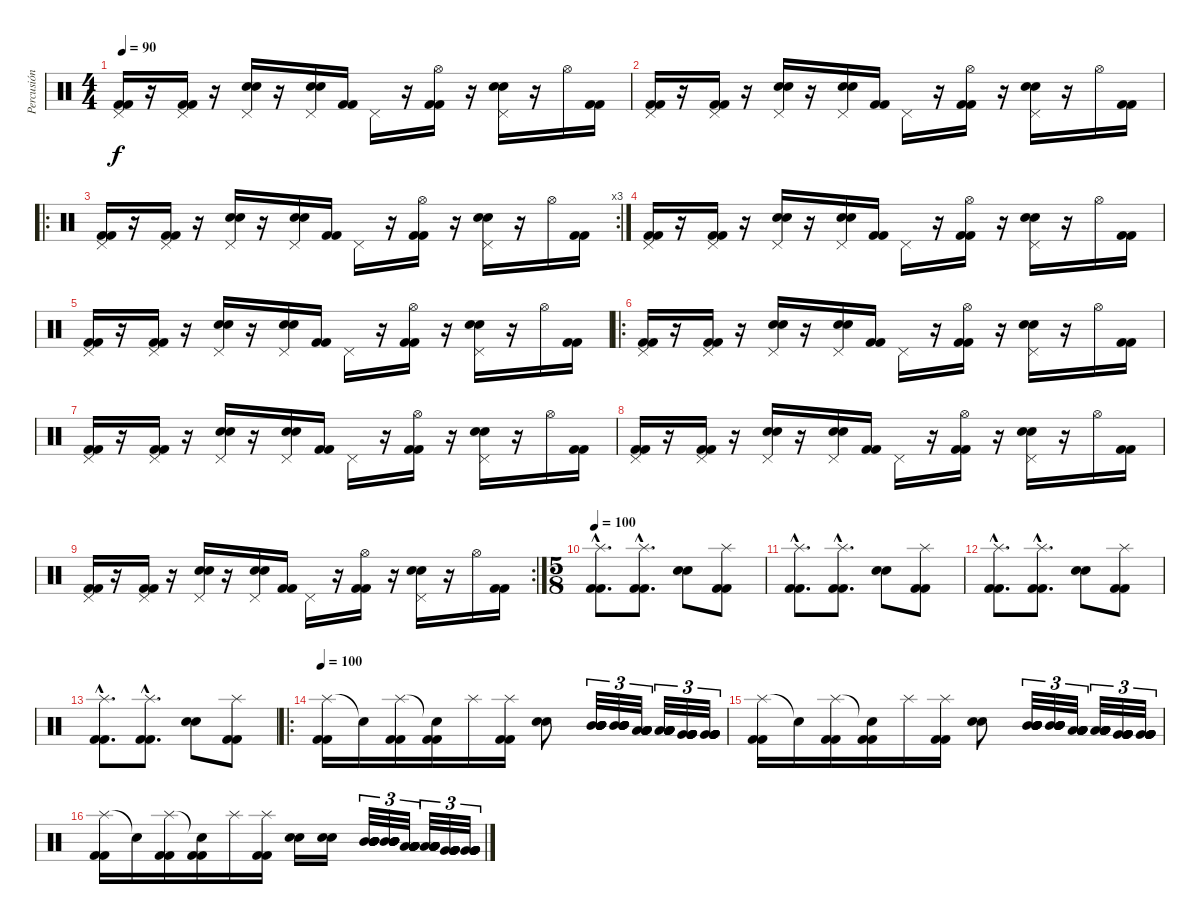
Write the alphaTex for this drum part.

\track ("Percusión" "Percusión") {instrument percussion}
\staff {score}
\articulation defaults
\ts (4 4)
\tempo 90
\clef neutral
\ks c
("Pedal Hi-Hat (hit)" "Kick (hit) 2" "Kick (hit) 2").16{dy f} r.16 ("Pedal Hi-Hat (hit)" "Kick (hit) 2" "Kick (hit) 2").16 r.16 ("Pedal Hi-Hat (hit)" "Electric Snare (hit)" "Electric Snare (hit)").16 r.16 ("Pedal Hi-Hat (hit)" "Electric Snare (hit)" "Electric Snare (hit)").16 ("Kick (hit) 2" "Kick (hit) 2").16 "Pedal Hi-Hat (hit)".16 r.16 ("Hi-Hat (open)" "Kick (hit) 2" "Kick (hit) 2").16 r.16 ("Pedal Hi-Hat (hit)" "Electric Snare (hit)" "Electric Snare (hit)").16 r.16 "Hi-Hat (open)".16 ("Kick (hit) 2" "Kick (hit) 2").16 |
("Pedal Hi-Hat (hit)" "Kick (hit) 2" "Kick (hit) 2").16 r.16 ("Pedal Hi-Hat (hit)" "Kick (hit) 2" "Kick (hit) 2").16 r.16 ("Pedal Hi-Hat (hit)" "Electric Snare (hit)" "Electric Snare (hit)").16 r.16 ("Pedal Hi-Hat (hit)" "Electric Snare (hit)" "Electric Snare (hit)").16 ("Kick (hit) 2" "Kick (hit) 2").16 "Pedal Hi-Hat (hit)".16 r.16 ("Hi-Hat (open)" "Kick (hit) 2" "Kick (hit) 2").16 r.16 ("Pedal Hi-Hat (hit)" "Electric Snare (hit)" "Electric Snare (hit)").16 r.16 "Hi-Hat (open)".16 ("Kick (hit) 2" "Kick (hit) 2").16 |
\ro
\rc 3
("Pedal Hi-Hat (hit)" "Kick (hit) 2" "Kick (hit) 2").16 r.16 ("Pedal Hi-Hat (hit)" "Kick (hit) 2" "Kick (hit) 2").16 r.16 ("Pedal Hi-Hat (hit)" "Electric Snare (hit)" "Electric Snare (hit)").16 r.16 ("Pedal Hi-Hat (hit)" "Electric Snare (hit)" "Electric Snare (hit)").16 ("Kick (hit) 2" "Kick (hit) 2").16 "Pedal Hi-Hat (hit)".16 r.16 ("Hi-Hat (open)" "Kick (hit) 2" "Kick (hit) 2").16 r.16 ("Pedal Hi-Hat (hit)" "Electric Snare (hit)" "Electric Snare (hit)").16 r.16 "Hi-Hat (open)".16 ("Kick (hit) 2" "Kick (hit) 2").16 |
("Pedal Hi-Hat (hit)" "Kick (hit) 2" "Kick (hit) 2").16 r.16 ("Pedal Hi-Hat (hit)" "Kick (hit) 2" "Kick (hit) 2").16 r.16 ("Pedal Hi-Hat (hit)" "Electric Snare (hit)" "Electric Snare (hit)").16 r.16 ("Pedal Hi-Hat (hit)" "Electric Snare (hit)" "Electric Snare (hit)").16 ("Kick (hit) 2" "Kick (hit) 2").16 "Pedal Hi-Hat (hit)".16 r.16 ("Hi-Hat (open)" "Kick (hit) 2" "Kick (hit) 2").16 r.16 ("Pedal Hi-Hat (hit)" "Electric Snare (hit)" "Electric Snare (hit)").16 r.16 "Hi-Hat (open)".16 ("Kick (hit) 2" "Kick (hit) 2").16 |
("Pedal Hi-Hat (hit)" "Kick (hit) 2" "Kick (hit) 2").16 r.16 ("Pedal Hi-Hat (hit)" "Kick (hit) 2" "Kick (hit) 2").16 r.16 ("Pedal Hi-Hat (hit)" "Electric Snare (hit)" "Electric Snare (hit)").16 r.16 ("Pedal Hi-Hat (hit)" "Electric Snare (hit)" "Electric Snare (hit)").16 ("Kick (hit) 2" "Kick (hit) 2").16 "Pedal Hi-Hat (hit)".16 r.16 ("Hi-Hat (open)" "Kick (hit) 2" "Kick (hit) 2").16 r.16 ("Pedal Hi-Hat (hit)" "Electric Snare (hit)" "Electric Snare (hit)").16 r.16 "Hi-Hat (open)".16 ("Kick (hit) 2" "Kick (hit) 2").16 |
\ro
("Pedal Hi-Hat (hit)" "Kick (hit) 2" "Kick (hit) 2").16 r.16 ("Pedal Hi-Hat (hit)" "Kick (hit) 2" "Kick (hit) 2").16 r.16 ("Pedal Hi-Hat (hit)" "Electric Snare (hit)" "Electric Snare (hit)").16 r.16 ("Pedal Hi-Hat (hit)" "Electric Snare (hit)" "Electric Snare (hit)").16 ("Kick (hit) 2" "Kick (hit) 2").16 "Pedal Hi-Hat (hit)".16 r.16 ("Hi-Hat (open)" "Kick (hit) 2" "Kick (hit) 2").16 r.16 ("Pedal Hi-Hat (hit)" "Electric Snare (hit)" "Electric Snare (hit)").16 r.16 "Hi-Hat (open)".16 ("Kick (hit) 2" "Kick (hit) 2").16 |
("Pedal Hi-Hat (hit)" "Kick (hit) 2" "Kick (hit) 2").16 r.16 ("Pedal Hi-Hat (hit)" "Kick (hit) 2" "Kick (hit) 2").16 r.16 ("Pedal Hi-Hat (hit)" "Electric Snare (hit)" "Electric Snare (hit)").16 r.16 ("Pedal Hi-Hat (hit)" "Electric Snare (hit)" "Electric Snare (hit)").16 ("Kick (hit) 2" "Kick (hit) 2").16 "Pedal Hi-Hat (hit)".16 r.16 ("Hi-Hat (open)" "Kick (hit) 2" "Kick (hit) 2").16 r.16 ("Pedal Hi-Hat (hit)" "Electric Snare (hit)" "Electric Snare (hit)").16 r.16 "Hi-Hat (open)".16 ("Kick (hit) 2" "Kick (hit) 2").16 |
("Pedal Hi-Hat (hit)" "Kick (hit) 2" "Kick (hit) 2").16 r.16 ("Pedal Hi-Hat (hit)" "Kick (hit) 2" "Kick (hit) 2").16 r.16 ("Pedal Hi-Hat (hit)" "Electric Snare (hit)" "Electric Snare (hit)").16 r.16 ("Pedal Hi-Hat (hit)" "Electric Snare (hit)" "Electric Snare (hit)").16 ("Kick (hit) 2" "Kick (hit) 2").16 "Pedal Hi-Hat (hit)".16 r.16 ("Hi-Hat (open)" "Kick (hit) 2" "Kick (hit) 2").16 r.16 ("Pedal Hi-Hat (hit)" "Electric Snare (hit)" "Electric Snare (hit)").16 r.16 "Hi-Hat (open)".16 ("Kick (hit) 2" "Kick (hit) 2").16 |
\rc 2
("Pedal Hi-Hat (hit)" "Kick (hit) 2" "Kick (hit) 2").16 r.16 ("Pedal Hi-Hat (hit)" "Kick (hit) 2" "Kick (hit) 2").16 r.16 ("Pedal Hi-Hat (hit)" "Electric Snare (hit)" "Electric Snare (hit)").16 r.16 ("Pedal Hi-Hat (hit)" "Electric Snare (hit)" "Electric Snare (hit)").16 ("Kick (hit) 2" "Kick (hit) 2").16 "Pedal Hi-Hat (hit)".16 r.16 ("Hi-Hat (open)" "Kick (hit) 2" "Kick (hit) 2").16 r.16 ("Pedal Hi-Hat (hit)" "Electric Snare (hit)" "Electric Snare (hit)").16 r.16 "Hi-Hat (open)".16 ("Kick (hit) 2" "Kick (hit) 2").16 |
\ts (5 8)
\tempo 100
("Splash (hit)"{hac} "Kick (hit) 2"{hac} "Kick (hit) 2"{hac}).8{d} ("Splash (hit)"{hac} "Kick (hit) 2"{hac} "Kick (hit) 2"{hac}).8{d} ("Electric Snare (hit)" "Electric Snare (hit)").8 ("Splash (hit)" "Kick (hit) 2" "Kick (hit) 2").8 |
("Splash (hit)"{hac} "Kick (hit) 2"{hac} "Kick (hit) 2"{hac}).8{d} ("Splash (hit)"{hac} "Kick (hit) 2"{hac} "Kick (hit) 2"{hac}).8{d} ("Electric Snare (hit)" "Electric Snare (hit)").8 ("Splash (hit)" "Kick (hit) 2" "Kick (hit) 2").8 |
("Splash (hit)"{hac} "Kick (hit) 2"{hac} "Kick (hit) 2"{hac}).8{d} ("Splash (hit)"{hac} "Kick (hit) 2"{hac} "Kick (hit) 2"{hac}).8{d} ("Electric Snare (hit)" "Electric Snare (hit)").8 ("Splash (hit)" "Kick (hit) 2" "Kick (hit) 2").8 |
("Splash (hit)"{hac} "Kick (hit) 2"{hac} "Kick (hit) 2"{hac}).8{d} ("Splash (hit)"{hac} "Kick (hit) 2"{hac} "Kick (hit) 2"{hac}).8{d} ("Electric Snare (hit)" "Electric Snare (hit)").8 ("Splash (hit)" "Kick (hit) 2" "Kick (hit) 2").8 |
\ro
\tempo 100
("Splash (hit)" "Kick (hit) 2" "Kick (hit) 2").16 "Snare (hit)"{t}.16 ("Splash (hit)" "Kick (hit) 2" "Kick (hit) 2").16 ("Snare (hit)"{t} "Kick (hit) 2" "Kick (hit) 2").16 "Splash (hit)".16 ("Splash (hit)" "Kick (hit) 2" "Kick (hit) 2").16 ("Electric Snare (hit)" "Electric Snare (hit)").8 ("Mid Tom (hit)" "Mid Tom (hit)" "Mid Tom (hit)" "Mid Tom (hit)" "Mid Tom (hit)" "Mid Tom (hit)").32{tu (3 2)} ("Mid Tom (hit)" "Mid Tom (hit)" "Mid Tom (hit)" "Mid Tom (hit)" "Mid Tom (hit)" "Mid Tom (hit)").32{tu (3 2)} ("Low Tom (hit)" "Low Tom (hit)" "Low Tom (hit)" "Low Tom (hit)" "Low Tom (hit)" "Low Tom (hit)").32{tu (3 2)} ("Low Tom (hit)" "Low Tom (hit)" "Low Tom (hit)" "Low Tom (hit)" "Low Tom (hit)" "Low Tom (hit)").32{tu (3 2)} ("Very Low Tom (hit)" "Very Low Tom (hit)" "Very Low Tom (hit)" "Very Low Tom (hit)" "Very Low Tom (hit)" "Very Low Tom (hit)").32{tu (3 2)} ("Very Low Tom (hit)" "Very Low Tom (hit)" "Very Low Tom (hit)" "Very Low Tom (hit)" "Very Low Tom (hit)" "Very Low Tom (hit)").32{tu (3 2)} |
("Splash (hit)" "Kick (hit) 2" "Kick (hit) 2").16 "Snare (hit)"{t}.16 ("Splash (hit)" "Kick (hit) 2" "Kick (hit) 2").16 ("Snare (hit)"{t} "Kick (hit) 2" "Kick (hit) 2").16 "Splash (hit)".16 ("Splash (hit)" "Kick (hit) 2" "Kick (hit) 2").16 ("Electric Snare (hit)" "Electric Snare (hit)").8 ("Mid Tom (hit)" "Mid Tom (hit)" "Mid Tom (hit)" "Mid Tom (hit)" "Mid Tom (hit)" "Mid Tom (hit)").32{tu (3 2)} ("Mid Tom (hit)" "Mid Tom (hit)" "Mid Tom (hit)" "Mid Tom (hit)" "Mid Tom (hit)" "Mid Tom (hit)").32{tu (3 2)} ("Low Tom (hit)" "Low Tom (hit)" "Low Tom (hit)" "Low Tom (hit)" "Low Tom (hit)" "Low Tom (hit)").32{tu (3 2)} ("Low Tom (hit)" "Low Tom (hit)" "Low Tom (hit)" "Low Tom (hit)" "Low Tom (hit)" "Low Tom (hit)").32{tu (3 2)} ("Very Low Tom (hit)" "Very Low Tom (hit)" "Very Low Tom (hit)" "Very Low Tom (hit)" "Very Low Tom (hit)" "Very Low Tom (hit)").32{tu (3 2)} ("Very Low Tom (hit)" "Very Low Tom (hit)" "Very Low Tom (hit)" "Very Low Tom (hit)" "Very Low Tom (hit)" "Very Low Tom (hit)").32{tu (3 2)} |
("Splash (hit)" "Kick (hit) 2" "Kick (hit) 2").16 "Snare (hit)"{t}.16 ("Splash (hit)" "Kick (hit) 2" "Kick (hit) 2").16 ("Snare (hit)"{t} "Kick (hit) 2" "Kick (hit) 2").16 "Splash (hit)".16 ("Splash (hit)" "Kick (hit) 2" "Kick (hit) 2").16 ("Electric Snare (hit)" "Electric Snare (hit)").16 ("Electric Snare (hit)" "Electric Snare (hit)").16 ("Mid Tom (hit)" "Mid Tom (hit)" "Mid Tom (hit)" "Mid Tom (hit)" "Mid Tom (hit)" "Mid Tom (hit)").32{tu (3 2)} ("Mid Tom (hit)" "Mid Tom (hit)" "Mid Tom (hit)" "Mid Tom (hit)" "Mid Tom (hit)" "Mid Tom (hit)").32{tu (3 2)} ("Low Tom (hit)" "Low Tom (hit)" "Low Tom (hit)" "Low Tom (hit)" "Low Tom (hit)" "Low Tom (hit)").32{tu (3 2)} ("Low Tom (hit)" "Low Tom (hit)" "Low Tom (hit)" "Low Tom (hit)" "Low Tom (hit)" "Low Tom (hit)").32{tu (3 2)} ("Very Low Tom (hit)" "Very Low Tom (hit)" "Very Low Tom (hit)" "Very Low Tom (hit)" "Very Low Tom (hit)" "Very Low Tom (hit)").32{tu (3 2)} ("Very Low Tom (hit)" "Very Low Tom (hit)" "Very Low Tom (hit)" "Very Low Tom (hit)" "Very Low Tom (hit)" "Very Low Tom (hit)").32{tu (3 2)}
